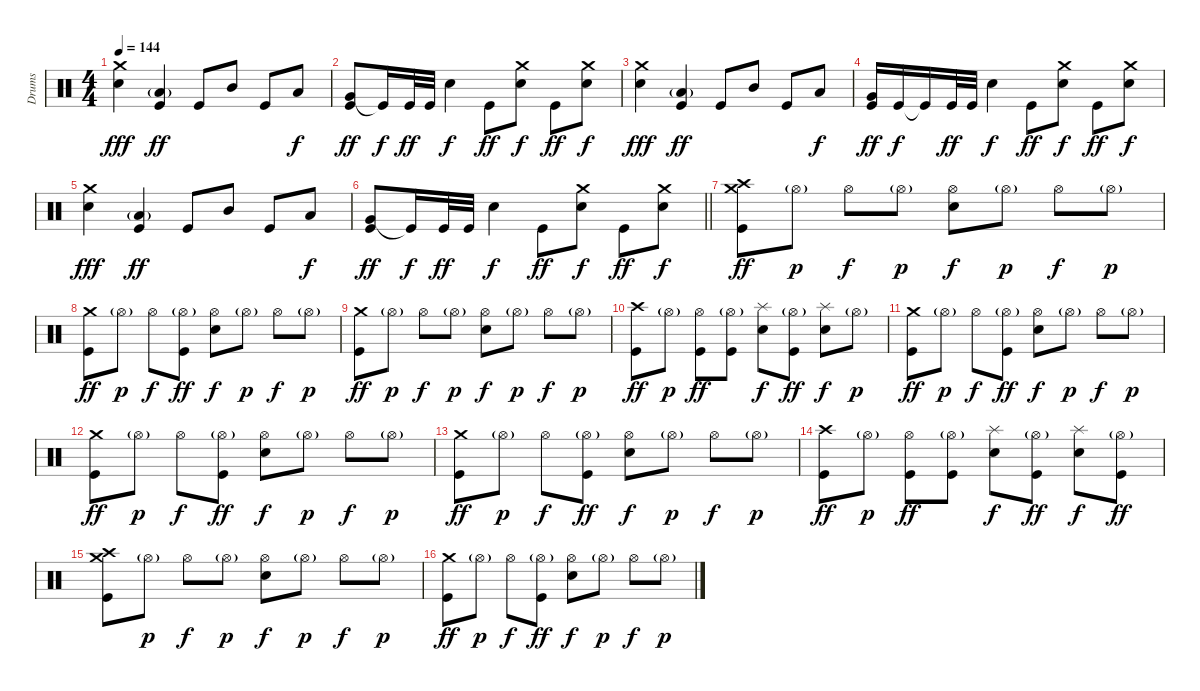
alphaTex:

\track ("Drums" "Drums") {instrument percussion}
\staff {score}
\articulation defaults
\ts (4 4)
\tempo 144
\clef neutral
\ks c
("Crash medium (hit)" "Snare (hit) 2").4{dy fff} ("Low Floor Tom (hit)"{g} "Kick (hit)").4{dy ff} "Kick (hit)".8 "Mid Tom (hit)".8 "Kick (hit)".8 "Low Tom (hit)".8{dy f} |
("Very Low Tom (hit)" "Kick (hit)").8{dy ff} "Kick (hit)"{t}.16{dy f} "Kick (hit)".32{dy ff} "Kick (hit)".32 "Snare (hit) 2".4{dy f} "Kick (hit)".8{dy ff} ("Crash medium (hit)" "Snare (hit) 2").8{dy f} "Kick (hit)".8{dy ff} ("Crash medium (hit)" "Snare (hit) 2").8{dy f} |
("Crash medium (hit)" "Snare (hit) 2").4{dy fff} ("Low Floor Tom (hit)"{g} "Kick (hit)").4{dy ff} "Kick (hit)".8 "Mid Tom (hit)".8 "Kick (hit)".8 "Low Tom (hit)".8{dy f} |
("Very Low Tom (hit)" "Kick (hit)").16{dy ff} "Kick (hit)".16{dy f} "Kick (hit)"{t}.16 "Kick (hit)".32{dy ff} "Kick (hit)".32 "Snare (hit) 2".4{dy f} "Kick (hit)".8{dy ff} ("Crash medium (hit)" "Snare (hit) 2").8{dy f} "Kick (hit)".8{dy ff} ("Crash medium (hit)" "Snare (hit) 2").8{dy f} |
("Crash medium (hit)" "Snare (hit) 2").4{dy fff} ("Low Floor Tom (hit)"{g} "Kick (hit)").4{dy ff} "Kick (hit)".8 "Mid Tom (hit)".8 "Kick (hit)".8 "Low Tom (hit)".8{dy f} |
\barLineRight lightlight
("Very Low Tom (hit)" "Kick (hit)").8{dy ff} "Kick (hit)"{t}.16{dy f} "Kick (hit)".32{dy ff} "Kick (hit)".32 "Snare (hit) 2".4{dy f} "Kick (hit)".8{dy ff} ("Crash medium (hit)" "Snare (hit) 2").8{dy f} "Kick (hit)".8{dy ff} ("Crash medium (hit)" "Snare (hit) 2").8{dy f} |
("Crash high (hit)" "Crash medium (hit)" "Kick (hit)").8{dy ff} "Hi-Hat (open)"{g}.8{dy p} "Hi-Hat (open)".8{dy f} "Hi-Hat (open)"{g}.8{dy p} ("Hi-Hat (open)" "Snare (hit) 2").8{dy f} "Hi-Hat (open)"{g}.8{dy p} "Hi-Hat (open)".8{dy f} "Hi-Hat (open)"{g}.8{dy p} |
("Crash medium (hit)" "Kick (hit)").8{dy ff} "Hi-Hat (open)"{g}.8{dy p} "Hi-Hat (open)".8{dy f} ("Hi-Hat (open)"{g} "Kick (hit)").8{dy ff} ("Hi-Hat (open)" "Snare (hit) 2").8{dy f} "Hi-Hat (open)"{g}.8{dy p} "Hi-Hat (open)".8{dy f} "Hi-Hat (open)"{g}.8{dy p} |
("Crash medium (hit)" "Kick (hit)").8{dy ff} "Hi-Hat (open)"{g}.8{dy p} "Hi-Hat (open)".8{dy f} "Hi-Hat (open)"{g}.8{dy p} ("Hi-Hat (open)" "Snare (hit) 2").8{dy f} "Hi-Hat (open)"{g}.8{dy p} "Hi-Hat (open)".8{dy f} "Hi-Hat (open)"{g}.8{dy p} |
("Crash high (hit)" "Kick (hit)").8{dy ff} "Hi-Hat (open)"{g}.8{dy p} ("Hi-Hat (open)" "Kick (hit)").8{dy ff} ("Hi-Hat (open)"{g} "Kick (hit)").8 ("Splash (hit)" "Snare (hit) 2").8{dy f} ("Hi-Hat (open)"{g} "Kick (hit)").8{dy ff} ("Splash (hit)" "Snare (hit) 2").8{dy f} "Hi-Hat (open)"{g}.8{dy p} |
("Crash medium (hit)" "Kick (hit)").8{dy ff} "Hi-Hat (open)"{g}.8{dy p} "Hi-Hat (open)".8{dy f} ("Hi-Hat (open)"{g} "Kick (hit)").8{dy ff} ("Hi-Hat (open)" "Snare (hit) 2").8{dy f} "Hi-Hat (open)"{g}.8{dy p} "Hi-Hat (open)".8{dy f} "Hi-Hat (open)"{g}.8{dy p} |
("Crash medium (hit)" "Kick (hit)").8{dy ff} "Hi-Hat (open)"{g}.8{dy p} "Hi-Hat (open)".8{dy f} ("Hi-Hat (open)"{g} "Kick (hit)").8{dy ff} ("Hi-Hat (open)" "Snare (hit) 2").8{dy f} "Hi-Hat (open)"{g}.8{dy p} "Hi-Hat (open)".8{dy f} "Hi-Hat (open)"{g}.8{dy p} |
("Crash medium (hit)" "Kick (hit)").8{dy ff} "Hi-Hat (open)"{g}.8{dy p} "Hi-Hat (open)".8{dy f} ("Hi-Hat (open)"{g} "Kick (hit)").8{dy ff} ("Hi-Hat (open)" "Snare (hit) 2").8{dy f} "Hi-Hat (open)"{g}.8{dy p} "Hi-Hat (open)".8{dy f} "Hi-Hat (open)"{g}.8{dy p} |
("Crash high (hit)" "Kick (hit)").8{dy ff} "Hi-Hat (open)"{g}.8{dy p} ("Hi-Hat (open)" "Kick (hit)").8{dy ff} ("Hi-Hat (open)"{g} "Kick (hit)").8 ("Splash (hit)" "Snare (hit) 2").8{dy f} ("Hi-Hat (open)"{g} "Kick (hit)").8{dy ff} ("Splash (hit)" "Snare (hit) 2").8{dy f} ("Hi-Hat (open)"{g} "Kick (hit)").8{dy ff} |
("Crash high (hit)" "Crash medium (hit)" "Kick (hit)").8 "Hi-Hat (open)"{g}.8{dy p} "Hi-Hat (open)".8{dy f} "Hi-Hat (open)"{g}.8{dy p} ("Hi-Hat (open)" "Snare (hit) 2").8{dy f} "Hi-Hat (open)"{g}.8{dy p} "Hi-Hat (open)".8{dy f} "Hi-Hat (open)"{g}.8{dy p} |
("Crash medium (hit)" "Kick (hit)").8{dy ff} "Hi-Hat (open)"{g}.8{dy p} "Hi-Hat (open)".8{dy f} ("Hi-Hat (open)"{g} "Kick (hit)").8{dy ff} ("Hi-Hat (open)" "Snare (hit) 2").8{dy f} "Hi-Hat (open)"{g}.8{dy p} "Hi-Hat (open)".8{dy f} "Hi-Hat (open)"{g}.8{dy p}
